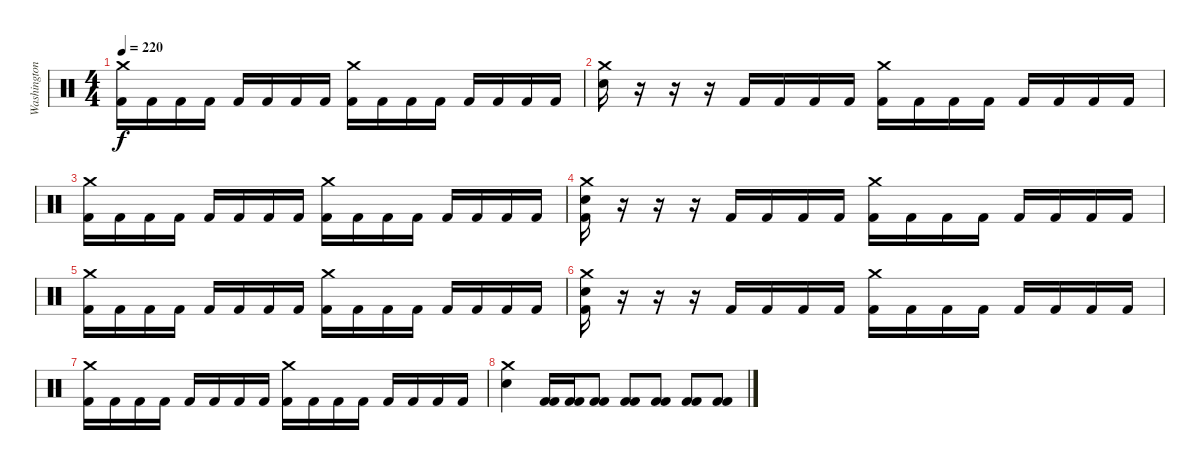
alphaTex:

\track ("Washington" "Washington") {instrument percussion}
\staff {score}
\articulation defaults
\ts (4 4)
\tempo 220
\clef neutral
\ks c
("Crash medium (hit)" "Kick (hit) 2").16{dy f} "Kick (hit) 2".16 "Kick (hit) 2".16 "Kick (hit) 2".16 "Kick (hit) 2".16 "Kick (hit) 2".16 "Kick (hit) 2".16 "Kick (hit) 2".16 ("Crash medium (hit)" "Kick (hit) 2").16 "Kick (hit) 2".16 "Kick (hit) 2".16 "Kick (hit) 2".16 "Kick (hit) 2".16 "Kick (hit) 2".16 "Kick (hit) 2".16 "Kick (hit) 2".16 |
("Crash medium (hit)" "Electric Snare (hit)").16 r.16 r.16 r.16 "Kick (hit) 2".16 "Kick (hit) 2".16 "Kick (hit) 2".16 "Kick (hit) 2".16 ("Crash medium (hit)" "Kick (hit) 2").16 "Kick (hit) 2".16 "Kick (hit) 2".16 "Kick (hit) 2".16 "Kick (hit) 2".16 "Kick (hit) 2".16 "Kick (hit) 2".16 "Kick (hit) 2".16 |
("Crash medium (hit)" "Kick (hit) 2").16 "Kick (hit) 2".16 "Kick (hit) 2".16 "Kick (hit) 2".16 "Kick (hit) 2".16 "Kick (hit) 2".16 "Kick (hit) 2".16 "Kick (hit) 2".16 ("Crash medium (hit)" "Kick (hit) 2").16 "Kick (hit) 2".16 "Kick (hit) 2".16 "Kick (hit) 2".16 "Kick (hit) 2".16 "Kick (hit) 2".16 "Kick (hit) 2".16 "Kick (hit) 2".16 |
("Crash medium (hit)" "Electric Snare (hit)" "Kick (hit) 2").16 r.16 r.16 r.16 "Kick (hit) 2".16 "Kick (hit) 2".16 "Kick (hit) 2".16 "Kick (hit) 2".16 ("Crash medium (hit)" "Kick (hit) 2").16 "Kick (hit) 2".16 "Kick (hit) 2".16 "Kick (hit) 2".16 "Kick (hit) 2".16 "Kick (hit) 2".16 "Kick (hit) 2".16 "Kick (hit) 2".16 |
("Crash medium (hit)" "Kick (hit) 2").16 "Kick (hit) 2".16 "Kick (hit) 2".16 "Kick (hit) 2".16 "Kick (hit) 2".16 "Kick (hit) 2".16 "Kick (hit) 2".16 "Kick (hit) 2".16 ("Crash medium (hit)" "Kick (hit) 2").16 "Kick (hit) 2".16 "Kick (hit) 2".16 "Kick (hit) 2".16 "Kick (hit) 2".16 "Kick (hit) 2".16 "Kick (hit) 2".16 "Kick (hit) 2".16 |
("Crash medium (hit)" "Electric Snare (hit)" "Kick (hit) 2").16 r.16 r.16 r.16 "Kick (hit) 2".16 "Kick (hit) 2".16 "Kick (hit) 2".16 "Kick (hit) 2".16 ("Crash medium (hit)" "Kick (hit) 2").16 "Kick (hit) 2".16 "Kick (hit) 2".16 "Kick (hit) 2".16 "Kick (hit) 2".16 "Kick (hit) 2".16 "Kick (hit) 2".16 "Kick (hit) 2".16 |
("Crash medium (hit)" "Kick (hit) 2").16 "Kick (hit) 2".16 "Kick (hit) 2".16 "Kick (hit) 2".16 "Kick (hit) 2".16 "Kick (hit) 2".16 "Kick (hit) 2".16 "Kick (hit) 2".16 ("Crash medium (hit)" "Kick (hit) 2").16 "Kick (hit) 2".16 "Kick (hit) 2".16 "Kick (hit) 2".16 "Kick (hit) 2".16 "Kick (hit) 2".16 "Kick (hit) 2".16 "Kick (hit) 2".16 |
("Crash medium (hit)" "Electric Snare (hit)").4 ("Kick (hit) 2" "Kick (hit) 2").16 ("Kick (hit) 2" "Kick (hit) 2").16 ("Kick (hit) 2" "Kick (hit) 2").8 ("Kick (hit) 2" "Kick (hit) 2").8 ("Kick (hit) 2" "Kick (hit) 2").8 ("Kick (hit) 2" "Kick (hit) 2").8 ("Kick (hit) 2" "Kick (hit) 2").8
